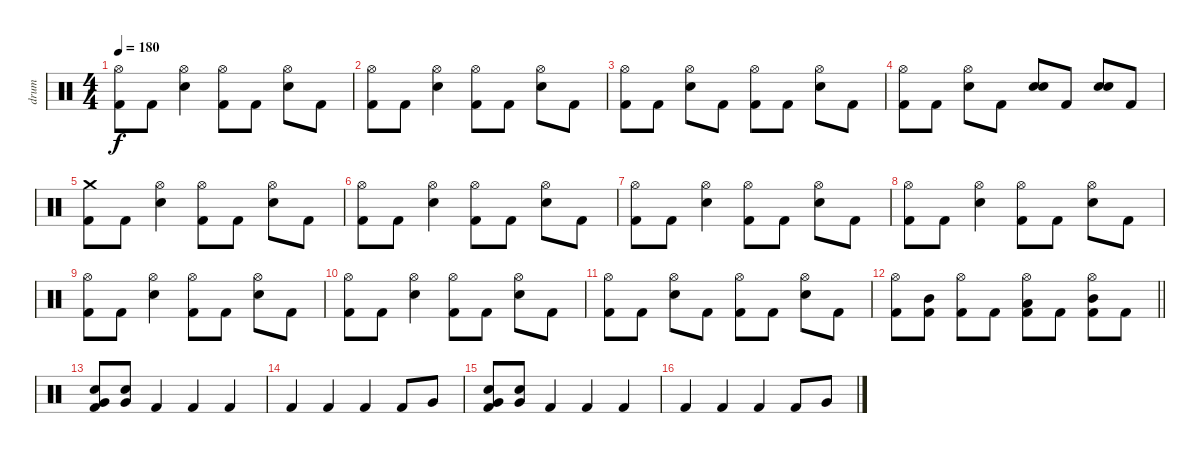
\track ("drum" "drum") {instrument percussion}
\staff {score}
\articulation defaults
\ts (4 4)
\tempo 180
\clef neutral
\ks c
("Hi-Hat (open)" "Kick (hit) 2").8{dy f} "Kick (hit) 2".8 ("Hi-Hat (open)" "Snare (hit) 2").4 ("Hi-Hat (open)" "Kick (hit) 2").8 "Kick (hit) 2".8 ("Hi-Hat (open)" "Snare (hit) 2").8 "Kick (hit) 2".8 |
("Hi-Hat (open)" "Kick (hit) 2").8 "Kick (hit) 2".8 ("Hi-Hat (open)" "Snare (hit) 2").4 ("Hi-Hat (open)" "Kick (hit) 2").8 "Kick (hit) 2".8 ("Hi-Hat (open)" "Snare (hit) 2").8 "Kick (hit) 2".8 |
("Hi-Hat (open)" "Kick (hit) 2").8 "Kick (hit) 2".8 ("Hi-Hat (open)" "Snare (hit) 2").8 "Kick (hit) 2".8 ("Hi-Hat (open)" "Kick (hit) 2").8 "Kick (hit) 2".8 ("Hi-Hat (open)" "Snare (hit) 2").8 "Kick (hit) 2".8 |
("Hi-Hat (open)" "Kick (hit) 2").8 "Kick (hit) 2".8 ("Hi-Hat (open)" "Snare (hit) 2").8 "Kick (hit) 2".8 ("Snare (hit) 2" "Snare (hit) 2").8 "Kick (hit) 2".8 ("Snare (hit) 2" "Snare (hit) 2").8 "Kick (hit) 2".8 |
("Crash medium (hit)" "Kick (hit) 2").8 "Kick (hit) 2".8 ("Hi-Hat (open)" "Snare (hit) 2").4 ("Hi-Hat (open)" "Kick (hit) 2").8 "Kick (hit) 2".8 ("Hi-Hat (open)" "Snare (hit) 2").8 "Kick (hit) 2".8 |
("Hi-Hat (open)" "Kick (hit) 2").8 "Kick (hit) 2".8 ("Hi-Hat (open)" "Snare (hit) 2").4 ("Hi-Hat (open)" "Kick (hit) 2").8 "Kick (hit) 2".8 ("Hi-Hat (open)" "Snare (hit) 2").8 "Kick (hit) 2".8 |
("Hi-Hat (open)" "Kick (hit) 2").8 "Kick (hit) 2".8 ("Hi-Hat (open)" "Snare (hit) 2").4 ("Hi-Hat (open)" "Kick (hit) 2").8 "Kick (hit) 2".8 ("Hi-Hat (open)" "Snare (hit) 2").8 "Kick (hit) 2".8 |
("Hi-Hat (open)" "Kick (hit) 2").8 "Kick (hit) 2".8 ("Hi-Hat (open)" "Snare (hit) 2").4 ("Hi-Hat (open)" "Kick (hit) 2").8 "Kick (hit) 2".8 ("Hi-Hat (open)" "Snare (hit) 2").8 "Kick (hit) 2".8 |
("Hi-Hat (open)" "Kick (hit) 2").8 "Kick (hit) 2".8 ("Hi-Hat (open)" "Snare (hit) 2").4 ("Hi-Hat (open)" "Kick (hit) 2").8 "Kick (hit) 2".8 ("Hi-Hat (open)" "Snare (hit) 2").8 "Kick (hit) 2".8 |
("Hi-Hat (open)" "Kick (hit) 2").8 "Kick (hit) 2".8 ("Hi-Hat (open)" "Snare (hit) 2").4 ("Hi-Hat (open)" "Kick (hit) 2").8 "Kick (hit) 2".8 ("Hi-Hat (open)" "Snare (hit) 2").8 "Kick (hit) 2".8 |
("Hi-Hat (open)" "Kick (hit) 2").8 "Kick (hit) 2".8 ("Hi-Hat (open)" "Snare (hit) 2").8 "Kick (hit) 2".8 ("Hi-Hat (open)" "Kick (hit) 2").8 "Kick (hit) 2".8 ("Hi-Hat (open)" "Snare (hit) 2").8 "Kick (hit) 2".8 |
\barLineRight lightlight
("Hi-Hat (open)" "Kick (hit) 2").8 ("Mid Tom (hit)" "Kick (hit) 2").8 ("Hi-Hat (open)" "Kick (hit) 2").8 "Kick (hit) 2".8 ("Hi-Hat (open)" "Low Tom (hit)" "Kick (hit) 2").8 "Kick (hit) 2".8 ("Hi-Hat (open)" "Mid Tom (hit)" "Kick (hit) 2").8 "Kick (hit) 2".8 |
("Snare (hit) 2" "Very Low Tom (hit)" "Kick (hit) 2").8 ("Snare (hit) 2" "Very Low Tom (hit)").8 "Kick (hit) 2".4 "Kick (hit) 2".4 "Kick (hit) 2".4 |
"Kick (hit) 2".4 "Kick (hit) 2".4 "Kick (hit) 2".4 "Kick (hit) 2".8 "Very Low Tom (hit)".8 |
("Snare (hit) 2" "Very Low Tom (hit)" "Kick (hit) 2").8 ("Snare (hit) 2" "Very Low Tom (hit)").8 "Kick (hit) 2".4 "Kick (hit) 2".4 "Kick (hit) 2".4 |
"Kick (hit) 2".4 "Kick (hit) 2".4 "Kick (hit) 2".4 "Kick (hit) 2".8 "Very Low Tom (hit)".8
